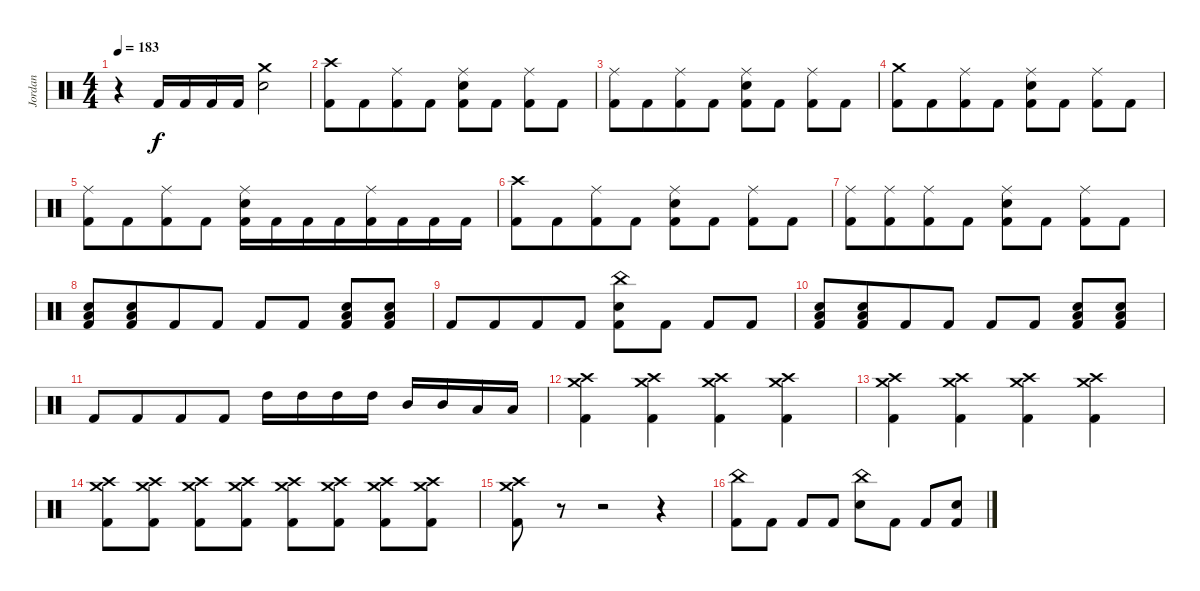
\track ("Jordan" "Jordan") {instrument percussion bank 82}
\staff {score}
\articulation defaults
\ts (4 4)
\tempo 183
\clef neutral
\ks c
r.4{dy f beam merge} "Kick (hit) 2".16{beam merge} "Kick (hit) 2".16{beam merge} "Kick (hit) 2".16 "Kick (hit) 2".16 ("Crash medium (hit)" "Snare (hit) 2").2 |
("Crash high (hit)" "Kick (hit) 2").8{beam merge} "Kick (hit) 2".8{beam merge} ("Ride (middle)" "Kick (hit) 2").8{beam merge} "Kick (hit) 2".8 ("Ride (middle)" "Snare (hit) 2" "Kick (hit) 2").8 "Kick (hit) 2".8 ("Ride (middle)" "Kick (hit) 2").8 "Kick (hit) 2".8 |
("Ride (middle)" "Kick (hit) 2").8{beam merge} "Kick (hit) 2".8{beam merge} ("Ride (middle)" "Kick (hit) 2").8{beam merge} "Kick (hit) 2".8 ("Ride (middle)" "Snare (hit) 2" "Kick (hit) 2").8 "Kick (hit) 2".8 ("Ride (middle)" "Kick (hit) 2").8 "Kick (hit) 2".8 |
("Crash medium (hit)" "Kick (hit) 2").8{beam merge} "Kick (hit) 2".8{beam merge} ("Ride (middle)" "Kick (hit) 2").8{beam merge} "Kick (hit) 2".8 ("Ride (middle)" "Snare (hit) 2" "Kick (hit) 2").8 "Kick (hit) 2".8 ("Ride (middle)" "Kick (hit) 2").8 "Kick (hit) 2".8 |
("Ride (middle)" "Kick (hit) 2").8{beam merge} "Kick (hit) 2".8{beam merge} ("Ride (middle)" "Kick (hit) 2").8{beam merge} "Kick (hit) 2".8 ("Ride (middle)" "Snare (hit) 2" "Kick (hit) 2").16 "Kick (hit) 2".16{beam merge} "Kick (hit) 2".16 "Kick (hit) 2".16{beam merge} ("Ride (middle)" "Kick (hit) 2").16 "Kick (hit) 2".16{beam merge} "Kick (hit) 2".16{beam merge} "Kick (hit) 2".16 |
("Crash high (hit)" "Kick (hit) 2").8{beam merge} "Kick (hit) 2".8{beam merge} ("Ride (middle)" "Kick (hit) 2").8{beam merge} "Kick (hit) 2".8 ("Ride (middle)" "Snare (hit) 2" "Kick (hit) 2").8 "Kick (hit) 2".8 ("Ride (middle)" "Kick (hit) 2").8 "Kick (hit) 2".8 |
("Ride (middle)" "Kick (hit) 2").8{beam merge} ("Ride (middle)" "Kick (hit) 2").8{beam merge} ("Ride (middle)" "Kick (hit) 2").8{beam merge} "Kick (hit) 2".8 ("Ride (middle)" "Snare (hit) 2" "Kick (hit) 2").8 "Kick (hit) 2".8 ("Ride (middle)" "Kick (hit) 2").8 "Kick (hit) 2".8 |
("Snare (hit) 2" "Low Tom (hit)" "Kick (hit) 2").8 ("Snare (hit) 2" "Low Tom (hit)" "Kick (hit) 2").8{beam merge} "Kick (hit) 2".8 "Kick (hit) 2".8 "Kick (hit) 2".8{beam merge} "Kick (hit) 2".8 ("Snare (hit) 2" "Low Tom (hit)" "Kick (hit) 2").8 ("Snare (hit) 2" "Low Tom (hit)" "Kick (hit) 2").8 |
"Kick (hit) 2".8 "Kick (hit) 2".8{beam merge} "Kick (hit) 2".8 "Kick (hit) 2".8 ("China (hit)" "Snare (hit) 2" "Kick (hit) 2").8{beam merge} "Kick (hit) 2".8 "Kick (hit) 2".8 "Kick (hit) 2".8 |
("Snare (hit) 2" "Low Tom (hit)" "Kick (hit) 2").8 ("Snare (hit) 2" "Low Tom (hit)" "Kick (hit) 2").8{beam merge} "Kick (hit) 2".8 "Kick (hit) 2".8 "Kick (hit) 2".8{beam merge} "Kick (hit) 2".8 ("Snare (hit) 2" "Low Tom (hit)" "Kick (hit) 2").8 ("Snare (hit) 2" "Low Tom (hit)" "Kick (hit) 2").8 |
"Kick (hit) 2".8 "Kick (hit) 2".8{beam merge} "Kick (hit) 2".8 "Kick (hit) 2".8 "High Tom (hit)".16 "High Tom (hit)".16 "High Tom (hit)".16 "High Tom (hit)".16 "Mid Tom (hit)".16{beam merge} "Mid Tom (hit)".16{beam merge} "Low Tom (hit)".16 "Low Tom (hit)".16 |
("Crash medium (hit)" "Crash high (hit)" "Kick (hit) 2").4 ("Crash medium (hit)" "Crash high (hit)" "Kick (hit) 2").4 ("Crash medium (hit)" "Crash high (hit)" "Kick (hit) 2").4 ("Crash medium (hit)" "Crash high (hit)" "Kick (hit) 2").4 |
("Crash medium (hit)" "Crash high (hit)" "Kick (hit) 2").4 ("Crash medium (hit)" "Crash high (hit)" "Kick (hit) 2").4 ("Crash medium (hit)" "Crash high (hit)" "Kick (hit) 2").4 ("Crash medium (hit)" "Crash high (hit)" "Kick (hit) 2").4 |
("Crash medium (hit)" "Crash high (hit)" "Kick (hit) 2").8 ("Crash medium (hit)" "Crash high (hit)" "Kick (hit) 2").8 ("Crash medium (hit)" "Crash high (hit)" "Kick (hit) 2").8 ("Crash medium (hit)" "Crash high (hit)" "Kick (hit) 2").8 ("Crash medium (hit)" "Crash high (hit)" "Kick (hit) 2").8 ("Crash medium (hit)" "Crash high (hit)" "Kick (hit) 2").8 ("Crash medium (hit)" "Crash high (hit)" "Kick (hit) 2").8 ("Crash medium (hit)" "Crash high (hit)" "Kick (hit) 2").8 |
("Crash medium (hit)" "Crash high (hit)" "Kick (hit) 2").8 r.8{volume 0 beam merge} r.2 r.4 |
("China (hit)" "Kick (hit) 2").8{volume 13} "Kick (hit) 2".8 "Kick (hit) 2".8{beam merge} "Kick (hit) 2".8 ("China (hit)" "Snare (hit) 2").8{beam merge} "Kick (hit) 2".8 "Kick (hit) 2".8 ("Snare (hit) 2" "Kick (hit) 2").8
